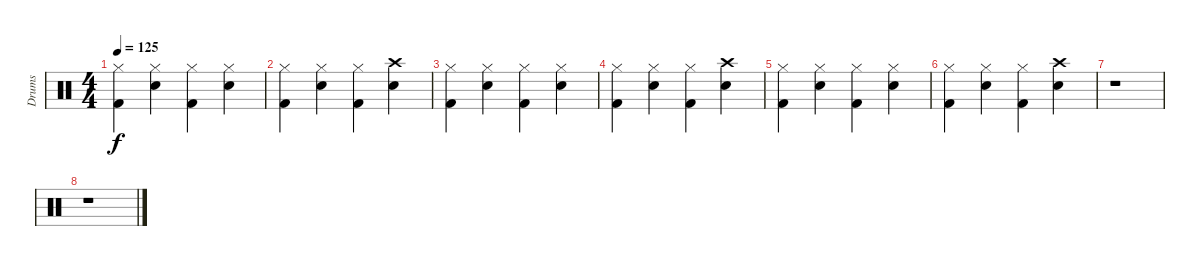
\track ("Drums" "Drums") {instrument percussion}
\staff {score}
\articulation defaults
\ts (4 4)
\tempo 125
\clef neutral
\ks c
("Hi-Hat (closed)" "Kick (hit) 2").4{dy f} ("Hi-Hat (closed)" "Electric Snare (hit)").4 ("Hi-Hat (closed)" "Kick (hit) 2").4 ("Hi-Hat (closed)" "Electric Snare (hit)").4 |
("Hi-Hat (closed)" "Kick (hit) 2").4 ("Hi-Hat (closed)" "Electric Snare (hit)").4 ("Hi-Hat (closed)" "Kick (hit) 2").4 ("Crash high (hit)" "Electric Snare (hit)").4 |
("Hi-Hat (closed)" "Kick (hit) 2").4 ("Hi-Hat (closed)" "Electric Snare (hit)").4 ("Hi-Hat (closed)" "Kick (hit) 2").4 ("Hi-Hat (closed)" "Electric Snare (hit)").4 |
("Hi-Hat (closed)" "Kick (hit) 2").4 ("Hi-Hat (closed)" "Electric Snare (hit)").4 ("Hi-Hat (closed)" "Kick (hit) 2").4 ("Crash high (hit)" "Electric Snare (hit)").4 |
("Hi-Hat (closed)" "Kick (hit) 2").4 ("Hi-Hat (closed)" "Electric Snare (hit)").4 ("Hi-Hat (closed)" "Kick (hit) 2").4 ("Hi-Hat (closed)" "Electric Snare (hit)").4 |
("Hi-Hat (closed)" "Kick (hit) 2").4 ("Hi-Hat (closed)" "Electric Snare (hit)").4 ("Hi-Hat (closed)" "Kick (hit) 2").4 ("Crash high (hit)" "Electric Snare (hit)").4 |
r.1 |
r.1
